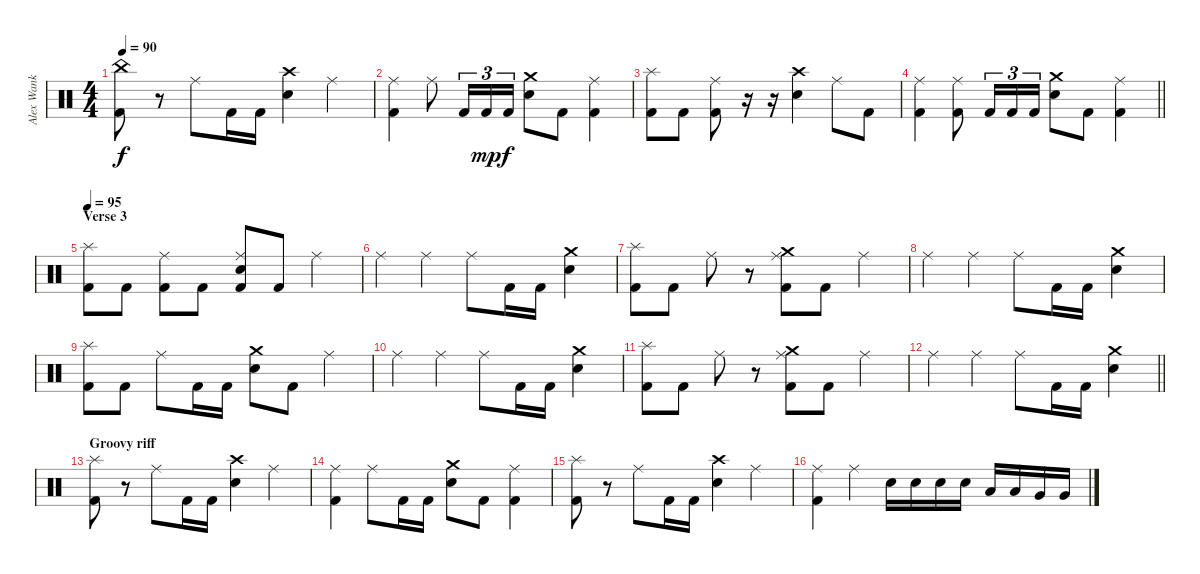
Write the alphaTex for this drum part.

\track ("Alex Wank" "Alex Wank") {instrument percussion}
\staff {score}
\articulation defaults
\ts (4 4)
\tempo 90
\clef neutral
\ks c
("Kick (hit) 2" "China (hit)").8{dy f} r.8 "Ride (middle)".8 "Kick (hit) 2".16 "Kick (hit) 2".16 ("Crash high (hit)" "Snare (hit) 2").4 "Ride (middle)".4 |
("Kick (hit) 2" "Ride (middle)").4 "Ride (middle)".8 "Kick (hit) 2".16{tu (3 2)} "Kick (hit) 2".16{tu (3 2) dy mp} "Kick (hit) 2".16{tu (3 2) dy f} ("Crash medium (hit)" "Snare (hit) 2").8 "Kick (hit) 2".8 ("Kick (hit) 2" "Ride (middle)").4 |
("Kick (hit) 2" "Splash (hit)").8 "Kick (hit) 2".8 ("Kick (hit) 2" "Ride (middle)").8 r.16 r.16 ("Crash high (hit)" "Snare (hit) 2").4 "Ride (middle)".8 "Kick (hit) 2".8 |
\barLineRight lightlight
("Kick (hit) 2" "Ride (middle)").4 ("Kick (hit) 2" "Ride (middle)").8 "Kick (hit) 2".16{tu (3 2)} "Kick (hit) 2".16{tu (3 2)} "Kick (hit) 2".16{tu (3 2)} ("Crash medium (hit)" "Snare (hit) 2").8 "Kick (hit) 2".8 ("Kick (hit) 2" "Ride (middle)").4 |
\section ("" "Verse 3")
\tempo 95
("Kick (hit) 2" "Splash (hit)").8 "Kick (hit) 2".8 ("Kick (hit) 2" "Ride (middle)").8 "Kick (hit) 2".8 ("Kick (hit) 2" "Ride (middle)" "Snare (hit) 2").8 "Kick (hit) 2".8 "Ride (middle)".4 |
"Ride (middle)".4 "Ride (middle)".4 "Ride (middle)".8 "Kick (hit) 2".16 "Kick (hit) 2".16 ("Crash medium (hit)" "Snare (hit) 2").4 |
("Kick (hit) 2" "Splash (hit)").8 "Kick (hit) 2".8 "Ride (middle)".8 r.8 ("Kick (hit) 2" "Crash medium (hit)" "Ride (middle)").8 "Kick (hit) 2".8 "Ride (middle)".4 |
"Ride (middle)".4 "Ride (middle)".4 "Ride (middle)".8 "Kick (hit) 2".16 "Kick (hit) 2".16 ("Crash medium (hit)" "Snare (hit) 2").4 |
("Kick (hit) 2" "Splash (hit)").8 "Kick (hit) 2".8 "Ride (middle)".8 "Kick (hit) 2".16 "Kick (hit) 2".16 ("Crash medium (hit)" "Snare (hit) 2").8 "Kick (hit) 2".8 "Ride (middle)".4 |
"Ride (middle)".4 "Ride (middle)".4 "Ride (middle)".8 "Kick (hit) 2".16 "Kick (hit) 2".16 ("Crash medium (hit)" "Snare (hit) 2").4 |
("Kick (hit) 2" "Splash (hit)").8 "Kick (hit) 2".8 "Ride (middle)".8 r.8 ("Kick (hit) 2" "Crash medium (hit)" "Ride (middle)").8 "Kick (hit) 2".8 "Ride (middle)".4 |
\barLineRight lightlight "Ride (middle)".4 "Ride (middle)".4 "Ride (middle)".8 "Kick (hit) 2".16 "Kick (hit) 2".16
("Crash medium (hit)" "Snare (hit) 2").4 |
\section ("" "Groovy riff")
("Kick (hit) 2" "Splash (hit)").8 r.8 "Ride (middle)".8 "Kick (hit) 2".16 "Kick (hit) 2".16 ("Crash high (hit)" "Snare (hit) 2").4 "Ride (middle)".4 |
("Kick (hit) 2" "Ride (middle)").4 "Ride (middle)".8 "Kick (hit) 2".16 "Kick (hit) 2".16 ("Crash medium (hit)" "Snare (hit) 2").8 "Kick (hit) 2".8 ("Kick (hit) 2" "Ride (middle)").4 |
("Kick (hit) 2" "Splash (hit)").8 r.8 "Ride (middle)".8 "Kick (hit) 2".16 "Kick (hit) 2".16 ("Crash high (hit)" "Snare (hit) 2").4 "Ride (middle)".4 |
("Kick (hit) 2" "Ride (middle)").4 "Ride (middle)".4 "Snare (hit) 2".16 "Snare (hit) 2".16 "Snare (hit) 2".16 "Snare (hit) 2".16 "Low Tom (hit)".16 "Low Tom (hit)".16 "Very Low Tom (hit)".16 "Very Low Tom (hit)".16
